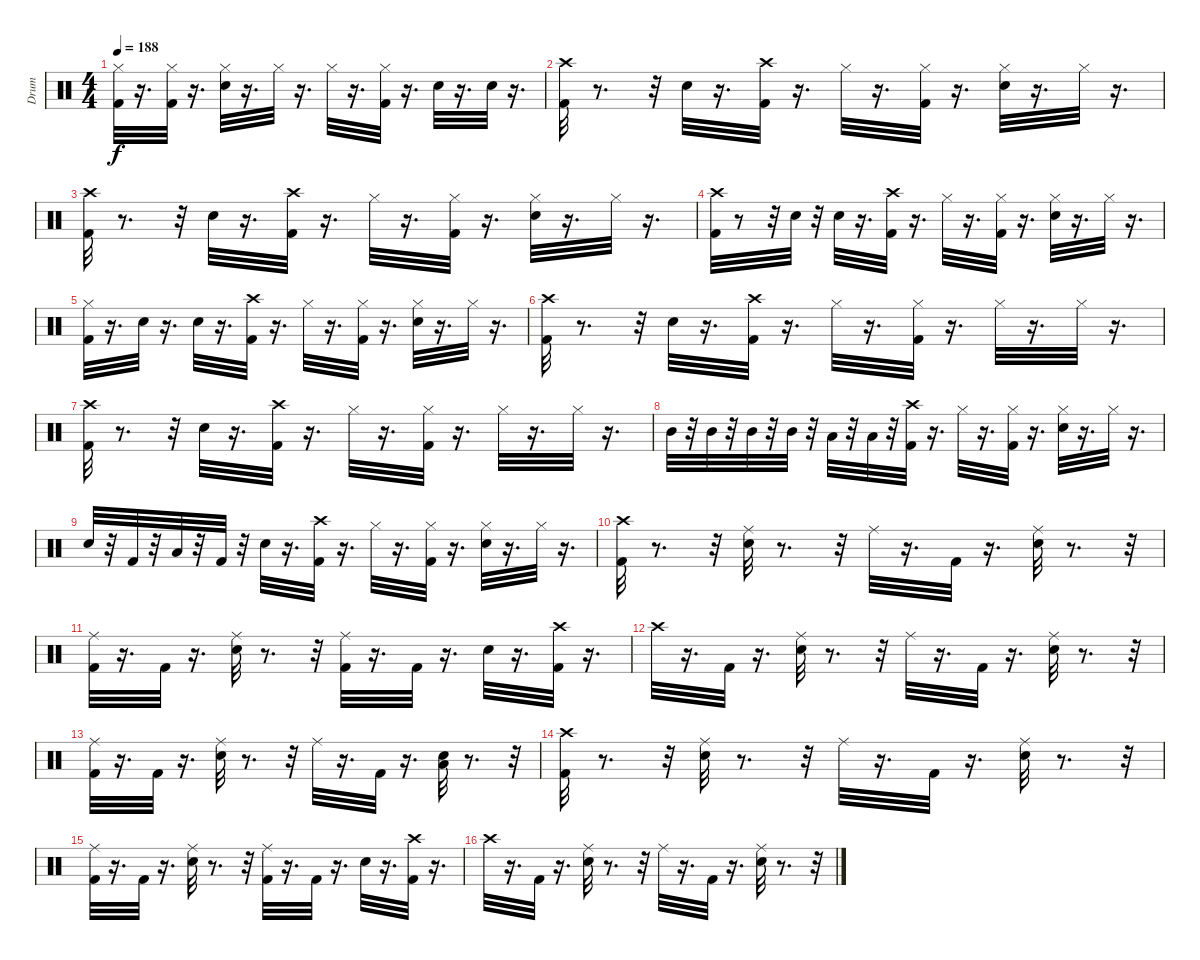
\track ("Drum" "Drum") {instrument percussion}
\staff {score}
\articulation defaults
\ts (4 4)
\tempo 188
\clef neutral
\ks c
("Hi-Hat (closed)" "Kick (hit) 2").32{dy f} r.16{d} ("Hi-Hat (closed)" "Kick (hit) 2").32 r.16{d} ("Hi-Hat (closed)" "Snare (hit) 2").32 r.16{d} "Hi-Hat (closed)".32 r.16{d} "Hi-Hat (closed)".32 r.16{d} ("Hi-Hat (closed)" "Kick (hit) 2").32 r.16{d} "Snare (hit) 2".32 r.16{d} "Snare (hit) 2".32 r.16{d} |
("Crash high (hit)" "Kick (hit) 2").32 r.8{d} r.32 "Snare (hit) 2".32 r.16{d} ("Crash high (hit)" "Kick (hit) 2").32 r.16{d} "Hi-Hat (closed)".32 r.16{d} ("Hi-Hat (closed)" "Kick (hit) 2").32 r.16{d} ("Hi-Hat (closed)" "Snare (hit) 2").32 r.16{d} "Hi-Hat (closed)".32 r.16{d} |
("Crash high (hit)" "Kick (hit) 2").32 r.8{d} r.32 "Snare (hit) 2".32 r.16{d} ("Crash high (hit)" "Kick (hit) 2").32 r.16{d} "Hi-Hat (closed)".32 r.16{d} ("Hi-Hat (closed)" "Kick (hit) 2").32 r.16{d} ("Hi-Hat (closed)" "Snare (hit) 2").32 r.16{d} "Hi-Hat (closed)".32 r.16{d} |
("Crash high (hit)" "Kick (hit) 2").32 r.8 r.32 "Snare (hit) 2".32 r.32 "Snare (hit) 2".32 r.16{d} ("Crash high (hit)" "Kick (hit) 2").32 r.16{d} "Hi-Hat (closed)".32 r.16{d} ("Hi-Hat (closed)" "Kick (hit) 2").32 r.16{d} ("Hi-Hat (closed)" "Snare (hit) 2").32 r.16{d} "Hi-Hat (closed)".32 r.16{d} |
("Hi-Hat (closed)" "Kick (hit) 2").32 r.16{d} "Snare (hit) 2".32 r.16{d} "Snare (hit) 2".32 r.16{d} ("Crash high (hit)" "Kick (hit) 2").32 r.16{d} "Hi-Hat (closed)".32 r.16{d} ("Hi-Hat (closed)" "Kick (hit) 2").32 r.16{d} ("Hi-Hat (closed)" "Snare (hit) 2").32 r.16{d} "Hi-Hat (closed)".32 r.16{d} |
("Crash high (hit)" "Kick (hit) 2").32 r.8{d} r.32 "Snare (hit) 2".32 r.16{d} ("Crash high (hit)" "Kick (hit) 2").32 r.16{d} "Hi-Hat (closed)".32 r.16{d} ("Hi-Hat (closed)" "Kick (hit) 2").32 r.16{d} "Hi-Hat (closed)".32 r.16{d} "Hi-Hat (closed)".32 r.16{d} |
("Crash high (hit)" "Kick (hit) 2").32 r.8{d} r.32 "Snare (hit) 2".32 r.16{d} ("Crash high (hit)" "Kick (hit) 2").32 r.16{d} "Hi-Hat (closed)".32 r.16{d} ("Hi-Hat (closed)" "Kick (hit) 2").32 r.16{d} "Hi-Hat (closed)".32 r.16{d} "Hi-Hat (closed)".32 r.16{d} |
"Mid Tom (hit)".32 r.32 "Mid Tom (hit)".32 r.32 "Mid Tom (hit)".32 r.32 "Mid Tom (hit)".32 r.32 "Low Tom (hit)".32 r.32 "Low Tom (hit)".32 r.32 ("Crash high (hit)" "Kick (hit) 2").32 r.16{d} "Hi-Hat (closed)".32 r.16{d} ("Hi-Hat (closed)" "Kick (hit) 2").32 r.16{d} ("Hi-Hat (closed)" "Snare (hit) 2").32 r.16{d} "Hi-Hat (closed)".32 r.16{d} |
"Snare (hit) 2".32 r.32 "Kick (hit) 2".32 r.32 "Low Floor Tom (hit)".32 r.32 "Kick (hit) 2".32 r.32 "Snare (hit) 2".32 r.16{d} ("Crash high (hit)" "Kick (hit) 2").32 r.16{d} "Hi-Hat (closed)".32 r.16{d} ("Kick (hit) 2" "Hi-Hat (closed)").32 r.16{d} ("Hi-Hat (closed)" "Snare (hit) 2").32 r.16{d} "Hi-Hat (closed)".32 r.16{d} |
("Crash high (hit)" "Kick (hit) 2").32 r.8{d} r.32 ("Ride (middle)" "Snare (hit) 2").32 r.8{d} r.32 "Ride (middle)".32 r.16{d} "Kick (hit) 2".32 r.16{d} ("Ride (middle)" "Snare (hit) 2").32 r.8{d} r.32 |
("Kick (hit) 2" "Ride (middle)").32 r.16{d} "Kick (hit) 2".32 r.16{d} ("Ride (middle)" "Snare (hit) 2").32 r.8{d} r.32 ("Kick (hit) 2" "Ride (middle)").32 r.16{d} "Kick (hit) 2".32 r.16{d} "Snare (hit) 2".32 r.16{d} ("Kick (hit) 2" "Crash high (hit)").32 r.16{d} |
"Crash high (hit)".32 r.16{d} "Kick (hit) 2".32 r.16{d} ("Ride (middle)" "Snare (hit) 2").32 r.8{d} r.32 "Ride (middle)".32 r.16{d} "Kick (hit) 2".32 r.16{d} ("Ride (middle)" "Snare (hit) 2").32 r.8{d} r.32 |
("Kick (hit) 2" "Ride (middle)").32 r.16{d} "Kick (hit) 2".32 r.16{d} ("Ride (middle)" "Snare (hit) 2").32 r.8{d} r.32 "Ride (middle)".32 r.16{d} "Kick (hit) 2".32 r.16{d} ("Snare (hit) 2" "Low Tom (hit)").32 r.8{d} r.32 |
("Crash high (hit)" "Kick (hit) 2").32 r.8{d} r.32 ("Ride (middle)" "Snare (hit) 2").32 r.8{d} r.32 "Ride (middle)".32 r.16{d} "Kick (hit) 2".32 r.16{d} ("Ride (middle)" "Snare (hit) 2").32 r.8{d} r.32 |
("Kick (hit) 2" "Ride (middle)").32 r.16{d} "Kick (hit) 2".32 r.16{d} ("Ride (middle)" "Snare (hit) 2").32 r.8{d} r.32 ("Kick (hit) 2" "Ride (middle)").32 r.16{d} "Kick (hit) 2".32 r.16{d} "Snare (hit) 2".32 r.16{d} ("Kick (hit) 2" "Crash high (hit)").32 r.16{d} |
"Crash high (hit)".32 r.16{d} "Kick (hit) 2".32 r.16{d} ("Ride (middle)" "Snare (hit) 2").32 r.8{d} r.32 "Ride (middle)".32 r.16{d} "Kick (hit) 2".32 r.16{d} ("Ride (middle)" "Snare (hit) 2").32 r.8{d} r.32
